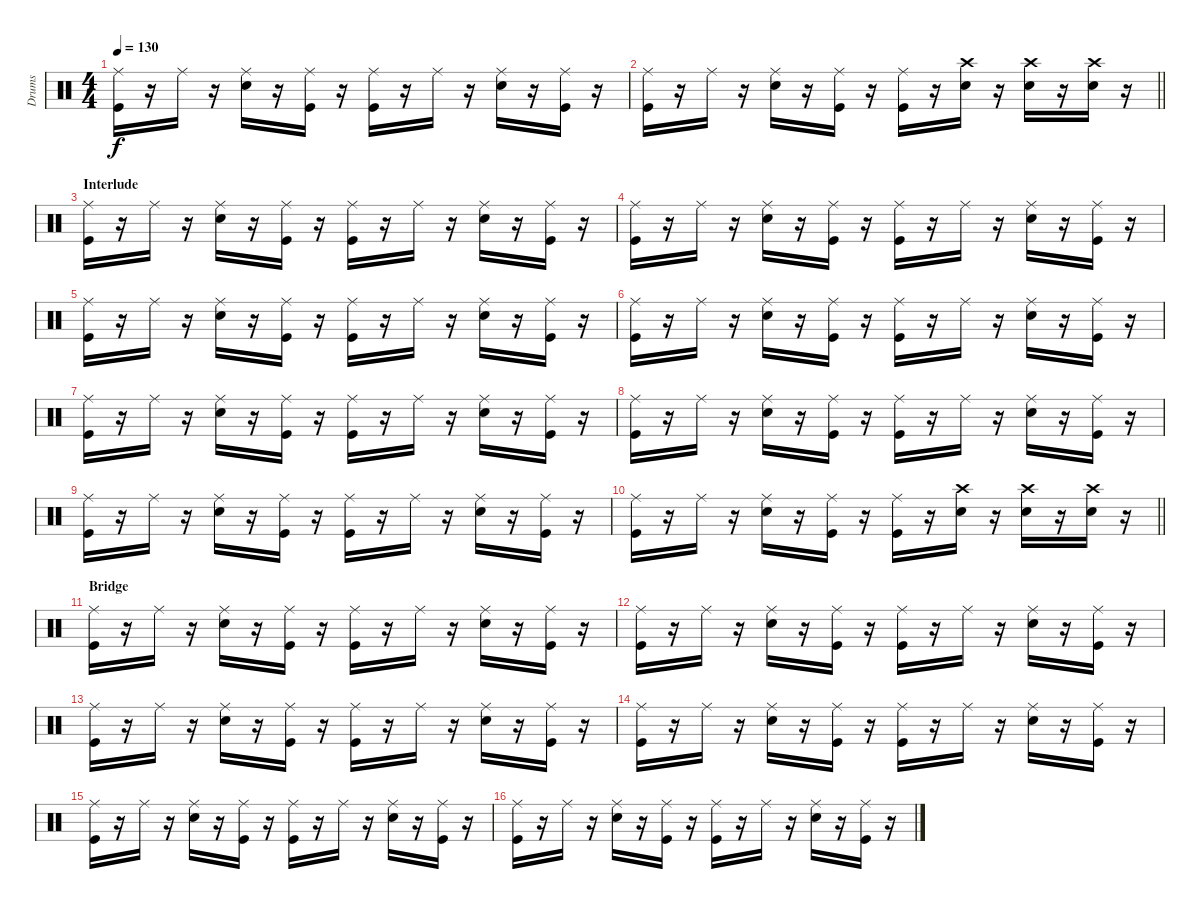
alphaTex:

\track ("Drums" "Drums") {instrument percussion}
\staff {score}
\articulation defaults
\ts (4 4)
\tempo 130
\clef neutral
\ks c
("Kick (hit)" "Ride (middle)").16{dy f} r.16 "Ride (middle)".16 r.16 ("Snare (hit) 2" "Ride (middle)").16 r.16 ("Kick (hit)" "Ride (middle)").16 r.16 ("Kick (hit)" "Ride (middle)").16 r.16 "Ride (middle)".16 r.16 ("Snare (hit) 2" "Ride (middle)").16 r.16 ("Kick (hit)" "Ride (middle)").16 r.16 |
\barLineRight lightlight
("Kick (hit)" "Ride (middle)").16 r.16 "Ride (middle)".16 r.16 ("Snare (hit) 2" "Ride (middle)").16 r.16 ("Kick (hit)" "Ride (middle)").16 r.16 ("Kick (hit)" "Ride (middle)").16 r.16 ("Snare (hit) 2" "Crash high (hit)").16 r.16 ("Snare (hit) 2" "Crash high (hit)").16 r.16 ("Snare (hit) 2" "Crash high (hit)").16 r.16 |
\section ("" "Interlude")
("Kick (hit)" "Ride (middle)").16 r.16 "Ride (middle)".16 r.16 ("Snare (hit) 2" "Ride (middle)").16 r.16 ("Kick (hit)" "Ride (middle)").16 r.16 ("Kick (hit)" "Ride (middle)").16 r.16 "Ride (middle)".16 r.16 ("Snare (hit) 2" "Ride (middle)").16 r.16 ("Kick (hit)" "Ride (middle)").16 r.16 |
("Kick (hit)" "Ride (middle)").16 r.16 "Ride (middle)".16 r.16 ("Snare (hit) 2" "Ride (middle)").16 r.16 ("Kick (hit)" "Ride (middle)").16 r.16 ("Kick (hit)" "Ride (middle)").16 r.16 "Ride (middle)".16 r.16 ("Snare (hit) 2" "Ride (middle)").16 r.16 ("Kick (hit)" "Ride (middle)").16 r.16 |
("Kick (hit)" "Ride (middle)").16 r.16 "Ride (middle)".16 r.16 ("Snare (hit) 2" "Ride (middle)").16 r.16 ("Kick (hit)" "Ride (middle)").16 r.16 ("Kick (hit)" "Ride (middle)").16 r.16 "Ride (middle)".16 r.16 ("Snare (hit) 2" "Ride (middle)").16 r.16 ("Kick (hit)" "Ride (middle)").16 r.16 |
("Kick (hit)" "Ride (middle)").16 r.16 "Ride (middle)".16 r.16 ("Snare (hit) 2" "Ride (middle)").16 r.16 ("Kick (hit)" "Ride (middle)").16 r.16 ("Kick (hit)" "Ride (middle)").16 r.16 "Ride (middle)".16 r.16 ("Snare (hit) 2" "Ride (middle)").16 r.16 ("Kick (hit)" "Ride (middle)").16 r.16 |
("Kick (hit)" "Ride (middle)").16 r.16 "Ride (middle)".16 r.16 ("Snare (hit) 2" "Ride (middle)").16 r.16 ("Kick (hit)" "Ride (middle)").16 r.16 ("Kick (hit)" "Ride (middle)").16 r.16 "Ride (middle)".16 r.16 ("Snare (hit) 2" "Ride (middle)").16 r.16 ("Kick (hit)" "Ride (middle)").16 r.16 |
("Kick (hit)" "Ride (middle)").16 r.16 "Ride (middle)".16 r.16 ("Snare (hit) 2" "Ride (middle)").16 r.16 ("Kick (hit)" "Ride (middle)").16 r.16 ("Kick (hit)" "Ride (middle)").16 r.16 "Ride (middle)".16 r.16 ("Snare (hit) 2" "Ride (middle)").16 r.16 ("Kick (hit)" "Ride (middle)").16 r.16 |
("Kick (hit)" "Ride (middle)").16 r.16 "Ride (middle)".16 r.16 ("Snare (hit) 2" "Ride (middle)").16 r.16 ("Kick (hit)" "Ride (middle)").16 r.16 ("Kick (hit)" "Ride (middle)").16 r.16 "Ride (middle)".16 r.16 ("Snare (hit) 2" "Ride (middle)").16 r.16 ("Kick (hit)" "Ride (middle)").16 r.16 |
\barLineRight lightlight
("Kick (hit)" "Ride (middle)").16 r.16 "Ride (middle)".16 r.16 ("Snare (hit) 2" "Ride (middle)").16 r.16 ("Kick (hit)" "Ride (middle)").16 r.16 ("Kick (hit)" "Ride (middle)").16 r.16 ("Snare (hit) 2" "Crash high (hit)").16 r.16 ("Snare (hit) 2" "Crash high (hit)").16 r.16 ("Snare (hit) 2" "Crash high (hit)").16 r.16 |
\section ("" "Bridge")
("Kick (hit)" "Ride (middle)").16 r.16 "Ride (middle)".16 r.16 ("Snare (hit) 2" "Ride (middle)").16 r.16 ("Kick (hit)" "Ride (middle)").16 r.16 ("Kick (hit)" "Ride (middle)").16 r.16 "Ride (middle)".16 r.16 ("Snare (hit) 2" "Ride (middle)").16 r.16 ("Kick (hit)" "Ride (middle)").16 r.16 |
("Kick (hit)" "Ride (middle)").16 r.16 "Ride (middle)".16 r.16 ("Snare (hit) 2" "Ride (middle)").16 r.16 ("Kick (hit)" "Ride (middle)").16 r.16 ("Kick (hit)" "Ride (middle)").16 r.16 "Ride (middle)".16 r.16 ("Snare (hit) 2" "Ride (middle)").16 r.16 ("Kick (hit)" "Ride (middle)").16 r.16 |
("Kick (hit)" "Ride (middle)").16 r.16 "Ride (middle)".16 r.16 ("Snare (hit) 2" "Ride (middle)").16 r.16 ("Kick (hit)" "Ride (middle)").16 r.16 ("Kick (hit)" "Ride (middle)").16 r.16 "Ride (middle)".16 r.16 ("Snare (hit) 2" "Ride (middle)").16 r.16 ("Kick (hit)" "Ride (middle)").16 r.16 |
("Kick (hit)" "Ride (middle)").16 r.16 "Ride (middle)".16 r.16 ("Snare (hit) 2" "Ride (middle)").16 r.16 ("Kick (hit)" "Ride (middle)").16 r.16 ("Kick (hit)" "Ride (middle)").16 r.16 "Ride (middle)".16 r.16 ("Snare (hit) 2" "Ride (middle)").16 r.16 ("Kick (hit)" "Ride (middle)").16 r.16 |
("Kick (hit)" "Ride (middle)").16 r.16 "Ride (middle)".16 r.16 ("Snare (hit) 2" "Ride (middle)").16 r.16 ("Kick (hit)" "Ride (middle)").16 r.16 ("Kick (hit)" "Ride (middle)").16 r.16 "Ride (middle)".16 r.16 ("Snare (hit) 2" "Ride (middle)").16 r.16 ("Kick (hit)" "Ride (middle)").16 r.16 |
("Kick (hit)" "Ride (middle)").16 r.16 "Ride (middle)".16 r.16 ("Snare (hit) 2" "Ride (middle)").16 r.16 ("Kick (hit)" "Ride (middle)").16 r.16 ("Kick (hit)" "Ride (middle)").16 r.16 "Ride (middle)".16 r.16 ("Snare (hit) 2" "Ride (middle)").16 r.16 ("Kick (hit)" "Ride (middle)").16 r.16
